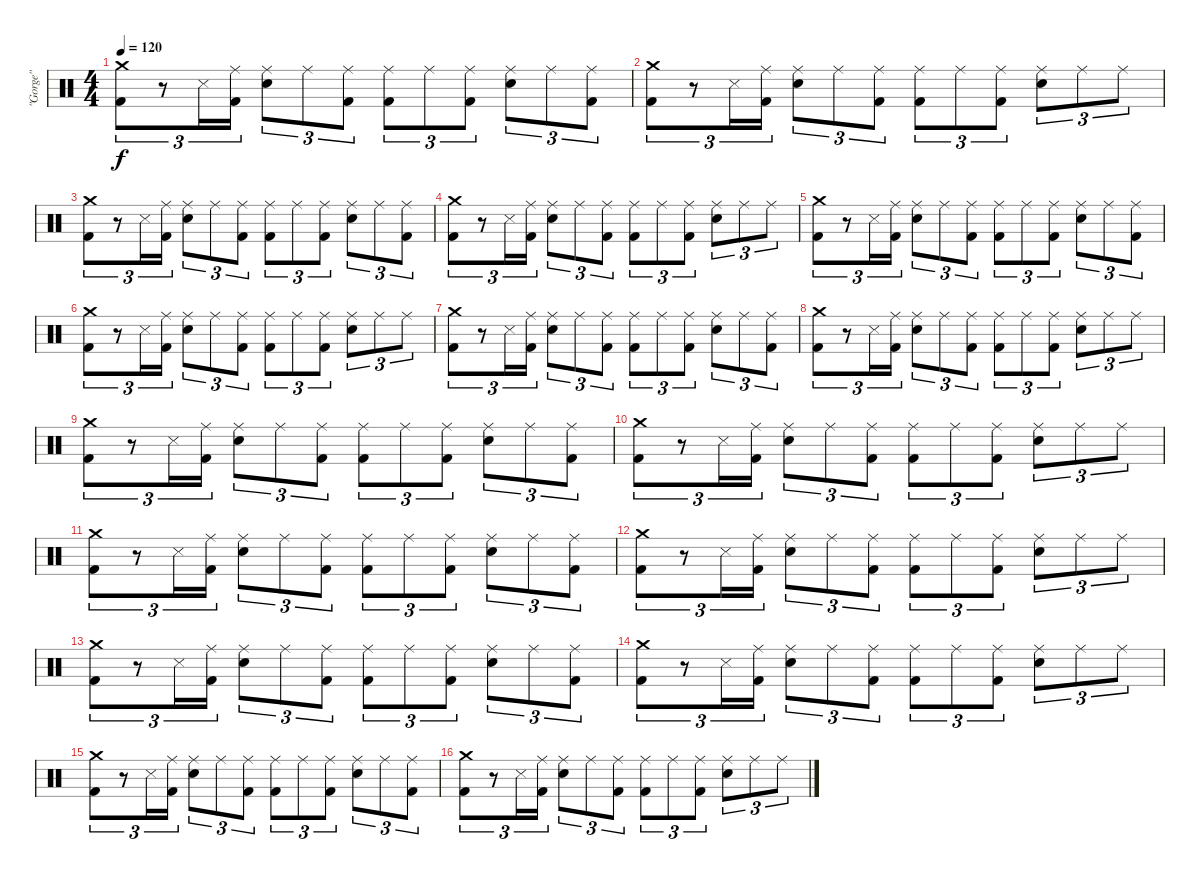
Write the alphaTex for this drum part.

\track ("\"Gorge\"" "\"Gorge\"") {instrument percussion}
\staff {score}
\articulation defaults
\ts (4 4)
\tempo 120
\clef neutral
\ks c
("Crash medium (hit)" "Kick (hit) 2").8{tu (3 2) dy f} r.8{tu (3 2)} "Snare (side stick) 3".16{tu (3 2)} ("Ride (middle)" "Kick (hit) 2").16{tu (3 2)} ("Ride (middle)" "Electric Snare (hit)").8{tu (3 2)} "Ride (middle)".8{tu (3 2)} ("Ride (middle)" "Kick (hit) 2").8{tu (3 2)} ("Ride (middle)" "Kick (hit) 2").8{tu (3 2)} "Ride (middle)".8{tu (3 2)} ("Ride (middle)" "Kick (hit) 2").8{tu (3 2)} ("Ride (middle)" "Electric Snare (hit)").8{tu (3 2)} "Ride (middle)".8{tu (3 2)} ("Ride (middle)" "Kick (hit) 2").8{tu (3 2)} |
("Crash medium (hit)" "Kick (hit) 2").8{tu (3 2)} r.8{tu (3 2)} "Snare (side stick) 3".16{tu (3 2)} ("Ride (middle)" "Kick (hit) 2").16{tu (3 2)} ("Ride (middle)" "Electric Snare (hit)").8{tu (3 2)} "Ride (middle)".8{tu (3 2)} ("Ride (middle)" "Kick (hit) 2").8{tu (3 2)} ("Ride (middle)" "Kick (hit) 2").8{tu (3 2)} "Ride (middle)".8{tu (3 2)} ("Ride (middle)" "Kick (hit) 2").8{tu (3 2)} ("Ride (middle)" "Electric Snare (hit)").8{tu (3 2)} "Ride (middle)".8{tu (3 2)} "Ride (middle)".8{tu (3 2)} |
("Crash medium (hit)" "Kick (hit) 2").8{tu (3 2)} r.8{tu (3 2)} "Snare (side stick) 3".16{tu (3 2)} ("Ride (middle)" "Kick (hit) 2").16{tu (3 2)} ("Ride (middle)" "Electric Snare (hit)").8{tu (3 2)} "Ride (middle)".8{tu (3 2)} ("Ride (middle)" "Kick (hit) 2").8{tu (3 2)} ("Ride (middle)" "Kick (hit) 2").8{tu (3 2)} "Ride (middle)".8{tu (3 2)} ("Ride (middle)" "Kick (hit) 2").8{tu (3 2)} ("Ride (middle)" "Electric Snare (hit)").8{tu (3 2)} "Ride (middle)".8{tu (3 2)} ("Ride (middle)" "Kick (hit) 2").8{tu (3 2)} |
("Crash medium (hit)" "Kick (hit) 2").8{tu (3 2)} r.8{tu (3 2)} "Snare (side stick) 3".16{tu (3 2)} ("Ride (middle)" "Kick (hit) 2").16{tu (3 2)} ("Ride (middle)" "Electric Snare (hit)").8{tu (3 2)} "Ride (middle)".8{tu (3 2)} ("Ride (middle)" "Kick (hit) 2").8{tu (3 2)} ("Ride (middle)" "Kick (hit) 2").8{tu (3 2)} "Ride (middle)".8{tu (3 2)} ("Ride (middle)" "Kick (hit) 2").8{tu (3 2)} ("Ride (middle)" "Electric Snare (hit)").8{tu (3 2)} "Ride (middle)".8{tu (3 2)} "Ride (middle)".8{tu (3 2)} |
("Crash medium (hit)" "Kick (hit) 2").8{tu (3 2)} r.8{tu (3 2)} "Snare (side stick) 3".16{tu (3 2)} ("Ride (middle)" "Kick (hit) 2").16{tu (3 2)} ("Ride (middle)" "Electric Snare (hit)").8{tu (3 2)} "Ride (middle)".8{tu (3 2)} ("Ride (middle)" "Kick (hit) 2").8{tu (3 2)} ("Ride (middle)" "Kick (hit) 2").8{tu (3 2)} "Ride (middle)".8{tu (3 2)} ("Ride (middle)" "Kick (hit) 2").8{tu (3 2)} ("Ride (middle)" "Electric Snare (hit)").8{tu (3 2)} "Ride (middle)".8{tu (3 2)} ("Ride (middle)" "Kick (hit) 2").8{tu (3 2)} |
("Crash medium (hit)" "Kick (hit) 2").8{tu (3 2)} r.8{tu (3 2)} "Snare (side stick) 3".16{tu (3 2)} ("Ride (middle)" "Kick (hit) 2").16{tu (3 2)} ("Ride (middle)" "Electric Snare (hit)").8{tu (3 2)} "Ride (middle)".8{tu (3 2)} ("Ride (middle)" "Kick (hit) 2").8{tu (3 2)} ("Ride (middle)" "Kick (hit) 2").8{tu (3 2)} "Ride (middle)".8{tu (3 2)} ("Ride (middle)" "Kick (hit) 2").8{tu (3 2)} ("Ride (middle)" "Electric Snare (hit)").8{tu (3 2)} "Ride (middle)".8{tu (3 2)} "Ride (middle)".8{tu (3 2)} |
("Crash medium (hit)" "Kick (hit) 2").8{tu (3 2)} r.8{tu (3 2)} "Snare (side stick) 3".16{tu (3 2)} ("Ride (middle)" "Kick (hit) 2").16{tu (3 2)} ("Ride (middle)" "Electric Snare (hit)").8{tu (3 2)} "Ride (middle)".8{tu (3 2)} ("Ride (middle)" "Kick (hit) 2").8{tu (3 2)} ("Ride (middle)" "Kick (hit) 2").8{tu (3 2)} "Ride (middle)".8{tu (3 2)} ("Ride (middle)" "Kick (hit) 2").8{tu (3 2)} ("Ride (middle)" "Electric Snare (hit)").8{tu (3 2)} "Ride (middle)".8{tu (3 2)} ("Ride (middle)" "Kick (hit) 2").8{tu (3 2)} |
("Crash medium (hit)" "Kick (hit) 2").8{tu (3 2)} r.8{tu (3 2)} "Snare (side stick) 3".16{tu (3 2)} ("Ride (middle)" "Kick (hit) 2").16{tu (3 2)} ("Ride (middle)" "Electric Snare (hit)").8{tu (3 2)} "Ride (middle)".8{tu (3 2)} ("Ride (middle)" "Kick (hit) 2").8{tu (3 2)} ("Ride (middle)" "Kick (hit) 2").8{tu (3 2)} "Ride (middle)".8{tu (3 2)} ("Ride (middle)" "Kick (hit) 2").8{tu (3 2)} ("Ride (middle)" "Electric Snare (hit)").8{tu (3 2)} "Ride (middle)".8{tu (3 2)} "Ride (middle)".8{tu (3 2)} |
("Crash medium (hit)" "Kick (hit) 2").8{tu (3 2)} r.8{tu (3 2)} "Snare (side stick) 3".16{tu (3 2)} ("Ride (middle)" "Kick (hit) 2").16{tu (3 2)} ("Ride (middle)" "Electric Snare (hit)").8{tu (3 2)} "Ride (middle)".8{tu (3 2)} ("Ride (middle)" "Kick (hit) 2").8{tu (3 2)} ("Ride (middle)" "Kick (hit) 2").8{tu (3 2)} "Ride (middle)".8{tu (3 2)} ("Ride (middle)" "Kick (hit) 2").8{tu (3 2)} ("Ride (middle)" "Electric Snare (hit)").8{tu (3 2)} "Ride (middle)".8{tu (3 2)} ("Ride (middle)" "Kick (hit) 2").8{tu (3 2)} |
("Crash medium (hit)" "Kick (hit) 2").8{tu (3 2)} r.8{tu (3 2)} "Snare (side stick) 3".16{tu (3 2)} ("Ride (middle)" "Kick (hit) 2").16{tu (3 2)} ("Ride (middle)" "Electric Snare (hit)").8{tu (3 2)} "Ride (middle)".8{tu (3 2)} ("Ride (middle)" "Kick (hit) 2").8{tu (3 2)} ("Ride (middle)" "Kick (hit) 2").8{tu (3 2)} "Ride (middle)".8{tu (3 2)} ("Ride (middle)" "Kick (hit) 2").8{tu (3 2)} ("Ride (middle)" "Electric Snare (hit)").8{tu (3 2)} "Ride (middle)".8{tu (3 2)} "Ride (middle)".8{tu (3 2)} |
("Crash medium (hit)" "Kick (hit) 2").8{tu (3 2)} r.8{tu (3 2)} "Snare (side stick) 3".16{tu (3 2)} ("Ride (middle)" "Kick (hit) 2").16{tu (3 2)} ("Ride (middle)" "Electric Snare (hit)").8{tu (3 2)} "Ride (middle)".8{tu (3 2)} ("Ride (middle)" "Kick (hit) 2").8{tu (3 2)} ("Ride (middle)" "Kick (hit) 2").8{tu (3 2)} "Ride (middle)".8{tu (3 2)} ("Ride (middle)" "Kick (hit) 2").8{tu (3 2)} ("Ride (middle)" "Electric Snare (hit)").8{tu (3 2)} "Ride (middle)".8{tu (3 2)} ("Ride (middle)" "Kick (hit) 2").8{tu (3 2)} |
("Crash medium (hit)" "Kick (hit) 2").8{tu (3 2)} r.8{tu (3 2)} "Snare (side stick) 3".16{tu (3 2)} ("Ride (middle)" "Kick (hit) 2").16{tu (3 2)} ("Ride (middle)" "Electric Snare (hit)").8{tu (3 2)} "Ride (middle)".8{tu (3 2)} ("Ride (middle)" "Kick (hit) 2").8{tu (3 2)} ("Ride (middle)" "Kick (hit) 2").8{tu (3 2)} "Ride (middle)".8{tu (3 2)} ("Ride (middle)" "Kick (hit) 2").8{tu (3 2)} ("Ride (middle)" "Electric Snare (hit)").8{tu (3 2)} "Ride (middle)".8{tu (3 2)} "Ride (middle)".8{tu (3 2)} |
("Crash medium (hit)" "Kick (hit) 2").8{tu (3 2)} r.8{tu (3 2)} "Snare (side stick) 3".16{tu (3 2)} ("Ride (middle)" "Kick (hit) 2").16{tu (3 2)} ("Ride (middle)" "Electric Snare (hit)").8{tu (3 2)} "Ride (middle)".8{tu (3 2)} ("Ride (middle)" "Kick (hit) 2").8{tu (3 2)} ("Ride (middle)" "Kick (hit) 2").8{tu (3 2)} "Ride (middle)".8{tu (3 2)} ("Ride (middle)" "Kick (hit) 2").8{tu (3 2)} ("Ride (middle)" "Electric Snare (hit)").8{tu (3 2)} "Ride (middle)".8{tu (3 2)} ("Ride (middle)" "Kick (hit) 2").8{tu (3 2)} |
("Crash medium (hit)" "Kick (hit) 2").8{tu (3 2)} r.8{tu (3 2)} "Snare (side stick) 3".16{tu (3 2)} ("Ride (middle)" "Kick (hit) 2").16{tu (3 2)} ("Ride (middle)" "Electric Snare (hit)").8{tu (3 2)} "Ride (middle)".8{tu (3 2)} ("Ride (middle)" "Kick (hit) 2").8{tu (3 2)} ("Ride (middle)" "Kick (hit) 2").8{tu (3 2)} "Ride (middle)".8{tu (3 2)} ("Ride (middle)" "Kick (hit) 2").8{tu (3 2)} ("Ride (middle)" "Electric Snare (hit)").8{tu (3 2)} "Ride (middle)".8{tu (3 2)} "Ride (middle)".8{tu (3 2)} |
("Crash medium (hit)" "Kick (hit) 2").8{tu (3 2)} r.8{tu (3 2)} "Snare (side stick) 3".16{tu (3 2)} ("Ride (middle)" "Kick (hit) 2").16{tu (3 2)} ("Ride (middle)" "Electric Snare (hit)").8{tu (3 2)} "Ride (middle)".8{tu (3 2)} ("Ride (middle)" "Kick (hit) 2").8{tu (3 2)} ("Ride (middle)" "Kick (hit) 2").8{tu (3 2)} "Ride (middle)".8{tu (3 2)} ("Ride (middle)" "Kick (hit) 2").8{tu (3 2)} ("Ride (middle)" "Electric Snare (hit)").8{tu (3 2)} "Ride (middle)".8{tu (3 2)} ("Ride (middle)" "Kick (hit) 2").8{tu (3 2)} |
("Crash medium (hit)" "Kick (hit) 2").8{tu (3 2)} r.8{tu (3 2)} "Snare (side stick) 3".16{tu (3 2)} ("Ride (middle)" "Kick (hit) 2").16{tu (3 2)} ("Ride (middle)" "Electric Snare (hit)").8{tu (3 2)} "Ride (middle)".8{tu (3 2)} ("Ride (middle)" "Kick (hit) 2").8{tu (3 2)} ("Ride (middle)" "Kick (hit) 2").8{tu (3 2)} "Ride (middle)".8{tu (3 2)} ("Ride (middle)" "Kick (hit) 2").8{tu (3 2)} ("Ride (middle)" "Electric Snare (hit)").8{tu (3 2)} "Ride (middle)".8{tu (3 2)} "Ride (middle)".8{tu (3 2)}
